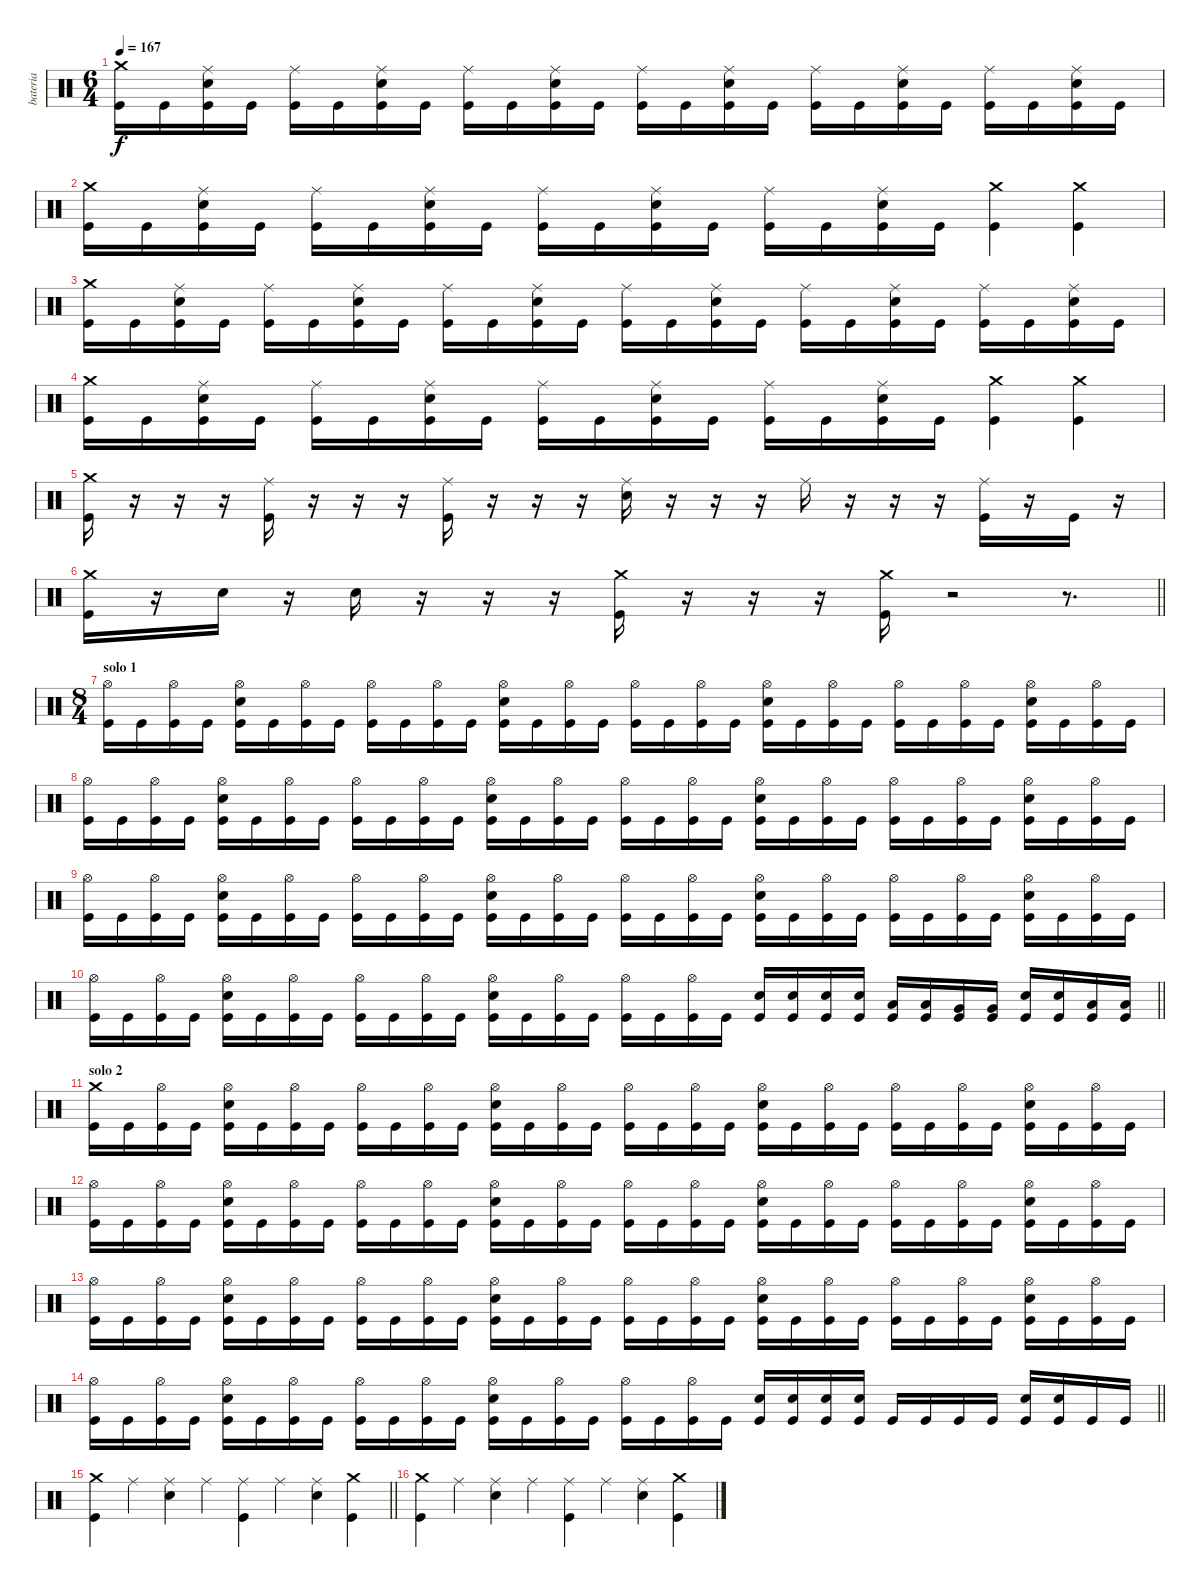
\track ("bateria" "bateria") {instrument percussion}
\staff {score}
\articulation defaults
\ts (6 4)
\tempo 167
\clef neutral
\ks c
("Crash medium (hit)" "Kick (hit)").16{dy f} "Kick (hit)".16 ("Ride (middle)" "Snare (hit) 2" "Kick (hit)").16 "Kick (hit)".16 ("Ride (middle)" "Kick (hit)").16 "Kick (hit)".16 ("Ride (middle)" "Snare (hit) 2" "Kick (hit)").16 "Kick (hit)".16 ("Ride (middle)" "Kick (hit)").16 "Kick (hit)".16 ("Ride (middle)" "Snare (hit) 2" "Kick (hit)").16 "Kick (hit)".16 ("Ride (middle)" "Kick (hit)").16 "Kick (hit)".16 ("Ride (middle)" "Snare (hit) 2" "Kick (hit)").16 "Kick (hit)".16 ("Ride (middle)" "Kick (hit)").16 "Kick (hit)".16 ("Ride (middle)" "Snare (hit) 2" "Kick (hit)").16 "Kick (hit)".16 ("Ride (middle)" "Kick (hit)").16 "Kick (hit)".16 ("Ride (middle)" "Snare (hit) 2" "Kick (hit)").16 "Kick (hit)".16 |
("Crash medium (hit)" "Kick (hit)").16 "Kick (hit)".16 ("Ride (middle)" "Snare (hit) 2" "Kick (hit)").16 "Kick (hit)".16 ("Ride (middle)" "Kick (hit)").16 "Kick (hit)".16 ("Ride (middle)" "Snare (hit) 2" "Kick (hit)").16 "Kick (hit)".16 ("Ride (middle)" "Kick (hit)").16 "Kick (hit)".16 ("Ride (middle)" "Snare (hit) 2" "Kick (hit)").16 "Kick (hit)".16 ("Ride (middle)" "Kick (hit)").16 "Kick (hit)".16 ("Ride (middle)" "Snare (hit) 2" "Kick (hit)").16 "Kick (hit)".16 ("Crash medium (hit)" "Kick (hit)").4 ("Crash medium (hit)" "Kick (hit)").4 |
("Crash medium (hit)" "Kick (hit)").16 "Kick (hit)".16 ("Ride (middle)" "Snare (hit) 2" "Kick (hit)").16 "Kick (hit)".16 ("Ride (middle)" "Kick (hit)").16 "Kick (hit)".16 ("Ride (middle)" "Snare (hit) 2" "Kick (hit)").16 "Kick (hit)".16 ("Ride (middle)" "Kick (hit)").16 "Kick (hit)".16 ("Ride (middle)" "Snare (hit) 2" "Kick (hit)").16 "Kick (hit)".16 ("Ride (middle)" "Kick (hit)").16 "Kick (hit)".16 ("Ride (middle)" "Snare (hit) 2" "Kick (hit)").16 "Kick (hit)".16 ("Ride (middle)" "Kick (hit)").16 "Kick (hit)".16 ("Ride (middle)" "Snare (hit) 2" "Kick (hit)").16 "Kick (hit)".16 ("Ride (middle)" "Kick (hit)").16 "Kick (hit)".16 ("Ride (middle)" "Snare (hit) 2" "Kick (hit)").16 "Kick (hit)".16 |
("Crash medium (hit)" "Kick (hit)").16 "Kick (hit)".16 ("Ride (middle)" "Snare (hit) 2" "Kick (hit)").16 "Kick (hit)".16 ("Ride (middle)" "Kick (hit)").16 "Kick (hit)".16 ("Ride (middle)" "Snare (hit) 2" "Kick (hit)").16 "Kick (hit)".16 ("Ride (middle)" "Kick (hit)").16 "Kick (hit)".16 ("Ride (middle)" "Snare (hit) 2" "Kick (hit)").16 "Kick (hit)".16 ("Ride (middle)" "Kick (hit)").16 "Kick (hit)".16 ("Ride (middle)" "Snare (hit) 2" "Kick (hit)").16 "Kick (hit)".16 ("Crash medium (hit)" "Kick (hit)").4 ("Crash medium (hit)" "Kick (hit)").4 |
("Crash medium (hit)" "Kick (hit)").16 r.16 r.16 r.16 ("Ride (middle)" "Kick (hit)").16 r.16 r.16 r.16 ("Ride (middle)" "Kick (hit)").16 r.16 r.16 r.16 ("Ride (middle)" "Snare (hit) 2").16 r.16 r.16 r.16 "Ride (middle)".16 r.16 r.16 r.16 ("Ride (middle)" "Kick (hit)").16 r.16 "Kick (hit)".16 r.16 |
\barLineRight lightlight
("Crash medium (hit)" "Kick (hit)").16 r.16 "Snare (hit) 2".16 r.16 "Snare (hit) 2".16 r.16 r.16 r.16 ("Crash medium (hit)" "Kick (hit)").16 r.16 r.16 r.16 ("Crash medium (hit)" "Kick (hit)").16 r.2 r.8{d} |
\ts (8 4)
\section ("" "solo 1")
("Hi-Hat (open)" "Kick (hit)").16 "Kick (hit)".16 ("Hi-Hat (open)" "Kick (hit)").16 "Kick (hit)".16 ("Hi-Hat (open)" "Snare (hit) 2" "Kick (hit)").16 "Kick (hit)".16 ("Hi-Hat (open)" "Kick (hit)").16 "Kick (hit)".16 ("Hi-Hat (open)" "Kick (hit)").16 "Kick (hit)".16 ("Hi-Hat (open)" "Kick (hit)").16 "Kick (hit)".16 ("Hi-Hat (open)" "Snare (hit) 2" "Kick (hit)").16 "Kick (hit)".16 ("Hi-Hat (open)" "Kick (hit)").16 "Kick (hit)".16 ("Hi-Hat (open)" "Kick (hit)").16 "Kick (hit)".16 ("Hi-Hat (open)" "Kick (hit)").16 "Kick (hit)".16 ("Hi-Hat (open)" "Snare (hit) 2" "Kick (hit)").16 "Kick (hit)".16 ("Hi-Hat (open)" "Kick (hit)").16 "Kick (hit)".16 ("Hi-Hat (open)" "Kick (hit)").16 "Kick (hit)".16 ("Hi-Hat (open)" "Kick (hit)").16 "Kick (hit)".16 ("Hi-Hat (open)" "Snare (hit) 2" "Kick (hit)").16 "Kick (hit)".16 ("Hi-Hat (open)" "Kick (hit)").16 "Kick (hit)".16 |
("Hi-Hat (open)" "Kick (hit)").16 "Kick (hit)".16 ("Hi-Hat (open)" "Kick (hit)").16 "Kick (hit)".16 ("Hi-Hat (open)" "Snare (hit) 2" "Kick (hit)").16 "Kick (hit)".16 ("Hi-Hat (open)" "Kick (hit)").16 "Kick (hit)".16 ("Hi-Hat (open)" "Kick (hit)").16 "Kick (hit)".16 ("Hi-Hat (open)" "Kick (hit)").16 "Kick (hit)".16 ("Hi-Hat (open)" "Snare (hit) 2" "Kick (hit)").16 "Kick (hit)".16 ("Hi-Hat (open)" "Kick (hit)").16 "Kick (hit)".16 ("Hi-Hat (open)" "Kick (hit)").16 "Kick (hit)".16 ("Hi-Hat (open)" "Kick (hit)").16 "Kick (hit)".16 ("Hi-Hat (open)" "Snare (hit) 2" "Kick (hit)").16 "Kick (hit)".16 ("Hi-Hat (open)" "Kick (hit)").16 "Kick (hit)".16 ("Hi-Hat (open)" "Kick (hit)").16 "Kick (hit)".16 ("Hi-Hat (open)" "Kick (hit)").16 "Kick (hit)".16 ("Hi-Hat (open)" "Snare (hit) 2" "Kick (hit)").16 "Kick (hit)".16 ("Hi-Hat (open)" "Kick (hit)").16 "Kick (hit)".16 |
("Hi-Hat (open)" "Kick (hit)").16 "Kick (hit)".16 ("Hi-Hat (open)" "Kick (hit)").16 "Kick (hit)".16 ("Hi-Hat (open)" "Snare (hit) 2" "Kick (hit)").16 "Kick (hit)".16 ("Hi-Hat (open)" "Kick (hit)").16 "Kick (hit)".16 ("Hi-Hat (open)" "Kick (hit)").16 "Kick (hit)".16 ("Hi-Hat (open)" "Kick (hit)").16 "Kick (hit)".16 ("Hi-Hat (open)" "Snare (hit) 2" "Kick (hit)").16 "Kick (hit)".16 ("Hi-Hat (open)" "Kick (hit)").16 "Kick (hit)".16 ("Hi-Hat (open)" "Kick (hit)").16 "Kick (hit)".16 ("Hi-Hat (open)" "Kick (hit)").16 "Kick (hit)".16 ("Hi-Hat (open)" "Snare (hit) 2" "Kick (hit)").16 "Kick (hit)".16 ("Hi-Hat (open)" "Kick (hit)").16 "Kick (hit)".16 ("Hi-Hat (open)" "Kick (hit)").16 "Kick (hit)".16 ("Hi-Hat (open)" "Kick (hit)").16 "Kick (hit)".16 ("Hi-Hat (open)" "Snare (hit) 2" "Kick (hit)").16 "Kick (hit)".16 ("Hi-Hat (open)" "Kick (hit)").16 "Kick (hit)".16 |
\barLineRight lightlight
("Hi-Hat (open)" "Kick (hit)").16 "Kick (hit)".16 ("Hi-Hat (open)" "Kick (hit)").16 "Kick (hit)".16 ("Hi-Hat (open)" "Snare (hit) 2" "Kick (hit)").16 "Kick (hit)".16 ("Hi-Hat (open)" "Kick (hit)").16 "Kick (hit)".16 ("Hi-Hat (open)" "Kick (hit)").16 "Kick (hit)".16 ("Hi-Hat (open)" "Kick (hit)").16 "Kick (hit)".16 ("Hi-Hat (open)" "Snare (hit) 2" "Kick (hit)").16 "Kick (hit)".16 ("Hi-Hat (open)" "Kick (hit)").16 "Kick (hit)".16 ("Hi-Hat (open)" "Kick (hit)").16 "Kick (hit)".16 ("Hi-Hat (open)" "Kick (hit)").16 "Kick (hit)".16 ("Snare (hit) 2" "Kick (hit)").16 ("Snare (hit) 2" "Kick (hit)").16 ("Snare (hit) 2" "Kick (hit)").16 ("Snare (hit) 2" "Kick (hit)").16 ("Low Floor Tom (hit)" "Kick (hit)").16 ("Low Floor Tom (hit)" "Kick (hit)").16 ("Very Low Tom (hit)" "Kick (hit)").16 ("Very Low Tom (hit)" "Kick (hit)").16 ("Snare (hit) 2" "Kick (hit)").16 ("Snare (hit) 2" "Kick (hit)").16 ("Low Tom (hit)" "Kick (hit)").16 ("Low Tom (hit)" "Kick (hit)").16 |
\section ("" "solo 2")
("Crash medium (hit)" "Kick (hit)").16 "Kick (hit)".16 ("Hi-Hat (open)" "Kick (hit)").16 "Kick (hit)".16 ("Hi-Hat (open)" "Snare (hit) 2" "Kick (hit)").16 "Kick (hit)".16 ("Hi-Hat (open)" "Kick (hit)").16 "Kick (hit)".16 ("Hi-Hat (open)" "Kick (hit)").16 "Kick (hit)".16 ("Hi-Hat (open)" "Kick (hit)").16 "Kick (hit)".16 ("Hi-Hat (open)" "Snare (hit) 2" "Kick (hit)").16 "Kick (hit)".16 ("Hi-Hat (open)" "Kick (hit)").16 "Kick (hit)".16 ("Hi-Hat (open)" "Kick (hit)").16 "Kick (hit)".16 ("Hi-Hat (open)" "Kick (hit)").16 "Kick (hit)".16 ("Hi-Hat (open)" "Snare (hit) 2" "Kick (hit)").16 "Kick (hit)".16 ("Hi-Hat (open)" "Kick (hit)").16 "Kick (hit)".16 ("Hi-Hat (open)" "Kick (hit)").16 "Kick (hit)".16 ("Hi-Hat (open)" "Kick (hit)").16 "Kick (hit)".16 ("Hi-Hat (open)" "Snare (hit) 2" "Kick (hit)").16 "Kick (hit)".16 ("Hi-Hat (open)" "Kick (hit)").16 "Kick (hit)".16 |
("Hi-Hat (open)" "Kick (hit)").16 "Kick (hit)".16 ("Hi-Hat (open)" "Kick (hit)").16 "Kick (hit)".16 ("Hi-Hat (open)" "Snare (hit) 2" "Kick (hit)").16 "Kick (hit)".16 ("Hi-Hat (open)" "Kick (hit)").16 "Kick (hit)".16 ("Hi-Hat (open)" "Kick (hit)").16 "Kick (hit)".16 ("Hi-Hat (open)" "Kick (hit)").16 "Kick (hit)".16 ("Hi-Hat (open)" "Snare (hit) 2" "Kick (hit)").16 "Kick (hit)".16 ("Hi-Hat (open)" "Kick (hit)").16 "Kick (hit)".16 ("Hi-Hat (open)" "Kick (hit)").16 "Kick (hit)".16 ("Hi-Hat (open)" "Kick (hit)").16 "Kick (hit)".16 ("Hi-Hat (open)" "Snare (hit) 2" "Kick (hit)").16 "Kick (hit)".16 ("Hi-Hat (open)" "Kick (hit)").16 "Kick (hit)".16 ("Hi-Hat (open)" "Kick (hit)").16 "Kick (hit)".16 ("Hi-Hat (open)" "Kick (hit)").16 "Kick (hit)".16 ("Hi-Hat (open)" "Snare (hit) 2" "Kick (hit)").16 "Kick (hit)".16 ("Hi-Hat (open)" "Kick (hit)").16 "Kick (hit)".16 |
("Hi-Hat (open)" "Kick (hit)").16 "Kick (hit)".16 ("Hi-Hat (open)" "Kick (hit)").16 "Kick (hit)".16 ("Hi-Hat (open)" "Snare (hit) 2" "Kick (hit)").16 "Kick (hit)".16 ("Hi-Hat (open)" "Kick (hit)").16 "Kick (hit)".16 ("Hi-Hat (open)" "Kick (hit)").16 "Kick (hit)".16 ("Hi-Hat (open)" "Kick (hit)").16 "Kick (hit)".16 ("Hi-Hat (open)" "Snare (hit) 2" "Kick (hit)").16 "Kick (hit)".16 ("Hi-Hat (open)" "Kick (hit)").16 "Kick (hit)".16 ("Hi-Hat (open)" "Kick (hit)").16 "Kick (hit)".16 ("Hi-Hat (open)" "Kick (hit)").16 "Kick (hit)".16 ("Hi-Hat (open)" "Snare (hit) 2" "Kick (hit)").16 "Kick (hit)".16 ("Hi-Hat (open)" "Kick (hit)").16 "Kick (hit)".16 ("Hi-Hat (open)" "Kick (hit)").16 "Kick (hit)".16 ("Hi-Hat (open)" "Kick (hit)").16 "Kick (hit)".16 ("Hi-Hat (open)" "Snare (hit) 2" "Kick (hit)").16 "Kick (hit)".16 ("Hi-Hat (open)" "Kick (hit)").16 "Kick (hit)".16 |
\barLineRight lightlight
("Hi-Hat (open)" "Kick (hit)").16 "Kick (hit)".16 ("Hi-Hat (open)" "Kick (hit)").16 "Kick (hit)".16 ("Hi-Hat (open)" "Snare (hit) 2" "Kick (hit)").16 "Kick (hit)".16 ("Hi-Hat (open)" "Kick (hit)").16 "Kick (hit)".16 ("Hi-Hat (open)" "Kick (hit)").16 "Kick (hit)".16 ("Hi-Hat (open)" "Kick (hit)").16 "Kick (hit)".16 ("Hi-Hat (open)" "Snare (hit) 2" "Kick (hit)").16 "Kick (hit)".16 ("Hi-Hat (open)" "Kick (hit)").16 "Kick (hit)".16 ("Hi-Hat (open)" "Kick (hit)").16 "Kick (hit)".16 ("Hi-Hat (open)" "Kick (hit)").16 "Kick (hit)".16 ("Snare (hit) 2" "Kick (hit)").16 ("Snare (hit) 2" "Kick (hit)").16 ("Snare (hit) 2" "Kick (hit)").16 ("Snare (hit) 2" "Kick (hit)").16 "Kick (hit)".16 "Kick (hit)".16 "Kick (hit)".16 "Kick (hit)".16 ("Snare (hit) 2" "Kick (hit)").16 ("Snare (hit) 2" "Kick (hit)").16 "Kick (hit)".16 "Kick (hit)".16 |
\barLineRight lightlight
("Crash medium (hit)" "Kick (hit)").4 "Ride (middle)".4 ("Ride (middle)" "Snare (hit) 2").4 "Ride (middle)".4 ("Ride (middle)" "Kick (hit)").4 "Ride (middle)".4 ("Ride (middle)" "Snare (hit) 2").4 ("Crash medium (hit)" "Kick (hit)").4 |
("Crash medium (hit)" "Kick (hit)").4 "Ride (middle)".4 ("Ride (middle)" "Snare (hit) 2").4 "Ride (middle)".4 ("Ride (middle)" "Kick (hit)").4 "Ride (middle)".4 ("Ride (middle)" "Snare (hit) 2").4 ("Crash medium (hit)" "Kick (hit)").4
